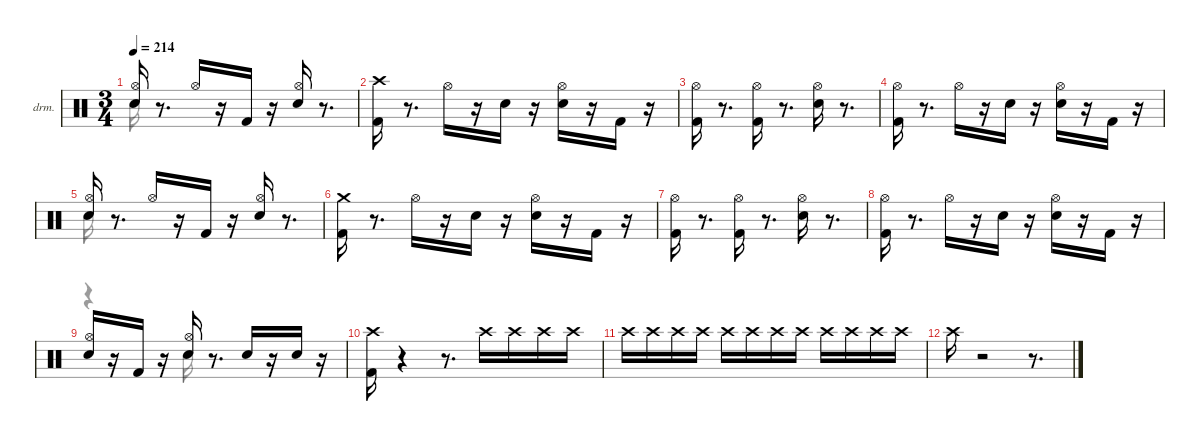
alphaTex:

\hideDynamics
\bracketExtendMode nobrackets
\firstSystemTrackNameOrientation horizontal
\otherSystemsTrackNameOrientation horizontal
\track ("EZdrummer 3" "drm.") {instrument percussion}
\staff {score}
\articulation defaults
\voice
\ts (3 4)
\tempo 214
\clef neutral
\ks aminor
("Snare (hit) 2" "Hi-Hat (open)"{acc #}).16{dy pp beam Up} r.8{d beam Up} "Hi-Hat (open)"{acc #}.16{dy f beam Up} r.16{beam Up} "Kick (hit) 2".16{dy mp beam Up} r.16{beam Up} ("Snare (hit) 2" "Hi-Hat (open)"{acc #}).16{dy ff beam Up} r.8{d beam Up} |
("Kick (hit) 2" "Crash high (hit)"{acc #}).16{dy mf beam Down} r.8{d beam Down} "Hi-Hat (open)"{acc #}.16{beam Down} r.16{beam Down} "Snare (hit) 2".16{dy f beam Down} r.16{beam Down} ("Snare (hit) 2" "Hi-Hat (open)"{acc #}).16{dy p beam Down} r.16{beam Down} "Kick (hit) 2".16{dy mp beam Up} r.16{beam Up} |
("Kick (hit) 2" "Hi-Hat (open)"{acc #}).16{dy f beam Down} r.8{d beam Down} ("Kick (hit) 2" "Hi-Hat (open)"{acc #}).16{dy mf beam Down} r.8{d beam Down} ("Snare (hit) 2" "Hi-Hat (open)"{acc #}).16{dy f beam Down} r.8{d beam Down} |
("Kick (hit) 2" "Hi-Hat (open)"{acc #}).16{dy mf beam Down} r.8{d beam Down} "Hi-Hat (open)"{acc #}.16{dy mp beam Down} r.16{beam Down} "Snare (hit) 2".16{dy f beam Down} r.16{beam Down} ("Snare (hit) 2" "Hi-Hat (open)"{acc #}).16{beam Down} r.16{beam Down} "Kick (hit) 2".16{dy mf beam Up} r.16{beam Up} |
("Snare (hit) 2" "Hi-Hat (open)"{acc #}).16{dy pp beam Up} r.8{d beam Up} "Hi-Hat (open)"{acc #}.16{dy f beam Up} r.16{beam Up} "Kick (hit) 2".16{dy mp beam Up} r.16{beam Up} ("Snare (hit) 2" "Hi-Hat (open)"{acc #}).16{dy ff beam Up} r.8{d beam Up} |
("Kick (hit) 2" "Crash medium (hit)").16{dy mf beam Down} r.8{d beam Down} "Hi-Hat (open)"{acc #}.16{beam Down} r.16{beam Down} "Snare (hit) 2".16{dy f beam Down} r.16{beam Down} ("Snare (hit) 2" "Hi-Hat (open)"{acc #}).16{beam Down} r.16{beam Down} "Kick (hit) 2".16{dy mp beam Up} r.16{beam Up} |
("Kick (hit) 2" "Hi-Hat (open)"{acc #}).16{dy f beam Down} r.8{d beam Down} ("Kick (hit) 2" "Hi-Hat (open)"{acc #}).16{beam Down} r.8{d beam Down} ("Snare (hit) 2" "Hi-Hat (open)"{acc #}).16{dy mp beam Down} r.8{d beam Down} |
("Kick (hit) 2" "Hi-Hat (open)"{acc #}).16{dy mf beam Down} r.8{d beam Down} "Hi-Hat (open)"{acc #}.16{dy mp beam Down} r.16{beam Down} "Snare (hit) 2".16{dy f beam Down} r.16{beam Down} ("Snare (hit) 2" "Hi-Hat (open)"{acc #}).16{beam Down} r.16{beam Down} "Kick (hit) 2".16{dy ff beam Up} r.16{beam Up} |
("Snare (hit) 2" "Hi-Hat (open)"{acc #}).16{beam Up} r.16{beam Up} "Kick (hit) 2".16{dy mp beam Up} r.16{beam Up} ("Snare (hit) 2" "Hi-Hat (open)"{acc #}).16{dy pp beam Up} r.8{d beam Up} "Snare (hit) 2".16{dy p beam Up} r.16{beam Up} "Snare (hit) 2".16{dy ppp beam Up} r.16{beam Up} |
("Kick (hit) 2" "Crash high (hit)"{acc #}).16{dy ff beam Down} r.4{beam Down} r.8{d beam Down} "Crash high (hit)"{acc #}.16{dy ppp beam Down} "Crash high (hit)"{acc #}.16{beam Down} "Crash high (hit)"{acc #}.16{beam Down} "Crash high (hit)"{acc #}.16{beam Down} |
"Crash high (hit)"{acc #}.16{beam Down} "Crash high (hit)"{acc #}.16{beam Down} "Crash high (hit)"{acc #}.16{beam Down} "Crash high (hit)"{acc #}.16{beam Down} "Crash high (hit)"{acc #}.16{dy pp beam Down} "Crash high (hit)"{acc #}.16{beam Down} "Crash high (hit)"{acc #}.16{dy p beam Down} "Crash high (hit)"{acc #}.16{dy pp beam Down} "Crash high (hit)"{acc #}.16{dy p beam Down} "Crash high (hit)"{acc #}.16{dy pp beam Down} "Crash high (hit)"{acc #}.16{dy mp beam Down} "Crash high (hit)"{acc #}.16{dy p beam Down} |
"Crash high (hit)"{acc #}.16{dy f beam Down} r.2{beam Down} r.8{d beam Down}
\voice
\clef neutral
\ottava regular
\simile none
\ks aminor "Snare (hit) 2".16{dy ff beam Down}
|
|
|
|
"Snare (hit) 2".16{beam Down} |
|
|
|
r.4{beam Down} "Snare (hit) 2".16{dy fff beam Down} |
|
|
